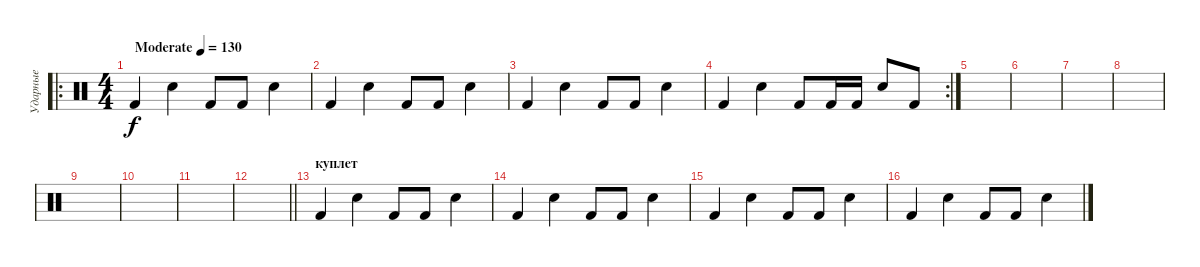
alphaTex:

\track ("Ударные" "Ударные") {instrument percussion}
\staff {score}
\articulation defaults
\ro
\ts (4 4)
\tempo (130 "Moderate")
\clef neutral
\ks c "Kick (hit) 2".4{dy f} "Electric Snare (hit)".4 "Kick (hit) 2".8 "Kick (hit) 2".8 "Electric Snare (hit)".4
|
"Kick (hit) 2".4 "Electric Snare (hit)".4 "Kick (hit) 2".8 "Kick (hit) 2".8 "Electric Snare (hit)".4 |
"Kick (hit) 2".4 "Electric Snare (hit)".4 "Kick (hit) 2".8 "Kick (hit) 2".8 "Electric Snare (hit)".4 |
\rc 2 "Kick (hit) 2".4 "Electric Snare (hit)".4 "Kick (hit) 2".8 "Kick (hit) 2".16 "Kick (hit) 2".16 "Electric Snare (hit)".8 "Kick (hit) 2".8
|
|
|
|
|
|
|
|
\barLineRight lightlight
|
\section ("" "куплет")
"Kick (hit) 2".4 "Electric Snare (hit)".4 "Kick (hit) 2".8 "Kick (hit) 2".8 "Electric Snare (hit)".4 |
"Kick (hit) 2".4 "Electric Snare (hit)".4 "Kick (hit) 2".8 "Kick (hit) 2".8 "Electric Snare (hit)".4 |
"Kick (hit) 2".4 "Electric Snare (hit)".4 "Kick (hit) 2".8 "Kick (hit) 2".8 "Electric Snare (hit)".4 |
"Kick (hit) 2".4 "Electric Snare (hit)".4 "Kick (hit) 2".8 "Kick (hit) 2".8 "Electric Snare (hit)".4
